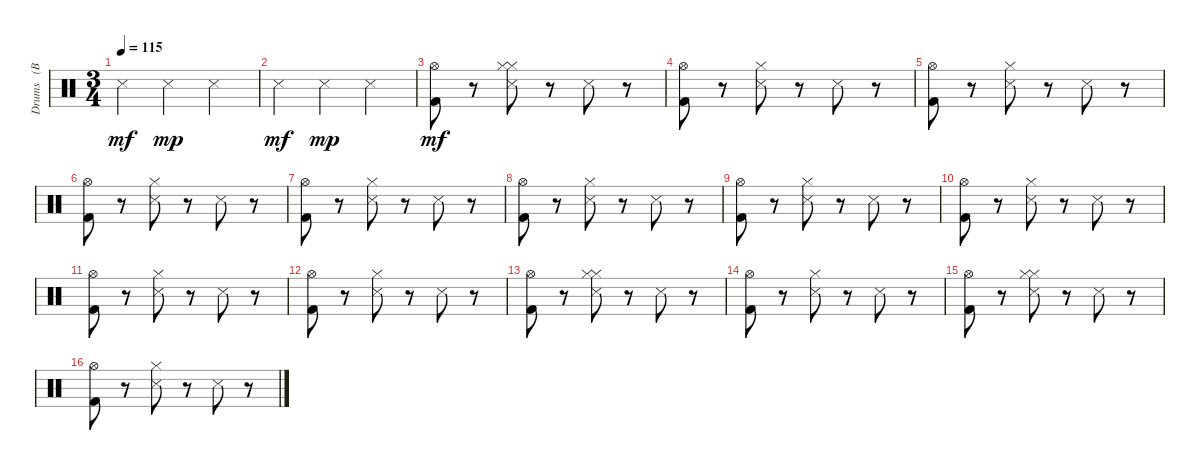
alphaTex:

\track ("Drums   (BB)" "Drums   (B") {instrument percussion}
\staff {score}
\articulation defaults
\ts (3 4)
\tempo 115
\clef neutral
\ks c "Snare (side stick) 3".4{dy mf} "Snare (side stick) 3".4{dy mp} "Snare (side stick) 3".4
|
"Snare (side stick) 3".4{dy mf} "Snare (side stick) 3".4{dy mp} "Snare (side stick) 3".4 |
("Kick (hit) 2" "Hi-Hat (open)").8{dy mf} r.8 ("Hi-Hat (closed)" "Hi-Hat (closed)" "Snare (side stick) 3").8 r.8 "Snare (side stick) 3".8 r.8 |
("Kick (hit) 2" "Hi-Hat (open)").8 r.8 ("Hi-Hat (closed)" "Snare (side stick) 3").8 r.8 "Snare (side stick) 3".8 r.8 |
("Kick (hit) 2" "Hi-Hat (open)").8 r.8 ("Hi-Hat (closed)" "Snare (side stick) 3").8 r.8 "Snare (side stick) 3".8 r.8 |
("Kick (hit) 2" "Hi-Hat (open)").8 r.8 ("Hi-Hat (closed)" "Snare (side stick) 3").8 r.8 "Snare (side stick) 3".8 r.8 |
("Kick (hit) 2" "Hi-Hat (open)").8 r.8 ("Hi-Hat (closed)" "Snare (side stick) 3").8 r.8 "Snare (side stick) 3".8 r.8 |
("Kick (hit) 2" "Hi-Hat (open)").8 r.8 ("Hi-Hat (closed)" "Snare (side stick) 3").8 r.8 "Snare (side stick) 3".8 r.8 |
("Kick (hit) 2" "Hi-Hat (open)").8 r.8 ("Hi-Hat (closed)" "Snare (side stick) 3").8 r.8 "Snare (side stick) 3".8 r.8 |
("Kick (hit) 2" "Hi-Hat (open)").8 r.8 ("Hi-Hat (closed)" "Snare (side stick) 3").8 r.8 "Snare (side stick) 3".8 r.8 |
("Kick (hit) 2" "Hi-Hat (open)").8 r.8 ("Hi-Hat (closed)" "Snare (side stick) 3").8 r.8 "Snare (side stick) 3".8 r.8 |
("Kick (hit) 2" "Hi-Hat (open)").8 r.8 ("Hi-Hat (closed)" "Snare (side stick) 3").8 r.8 "Snare (side stick) 3".8 r.8 |
("Kick (hit) 2" "Hi-Hat (open)").8 r.8 ("Hi-Hat (closed)" "Hi-Hat (closed)" "Snare (side stick) 3").8 r.8 "Snare (side stick) 3".8 r.8 |
("Kick (hit) 2" "Hi-Hat (open)").8 r.8 ("Hi-Hat (closed)" "Snare (side stick) 3").8 r.8 "Snare (side stick) 3".8 r.8 |
("Kick (hit) 2" "Hi-Hat (open)").8 r.8 ("Hi-Hat (closed)" "Hi-Hat (closed)" "Snare (side stick) 3").8 r.8 "Snare (side stick) 3".8 r.8 |
("Kick (hit) 2" "Hi-Hat (open)").8 r.8 ("Hi-Hat (closed)" "Snare (side stick) 3").8 r.8 "Snare (side stick) 3".8 r.8
